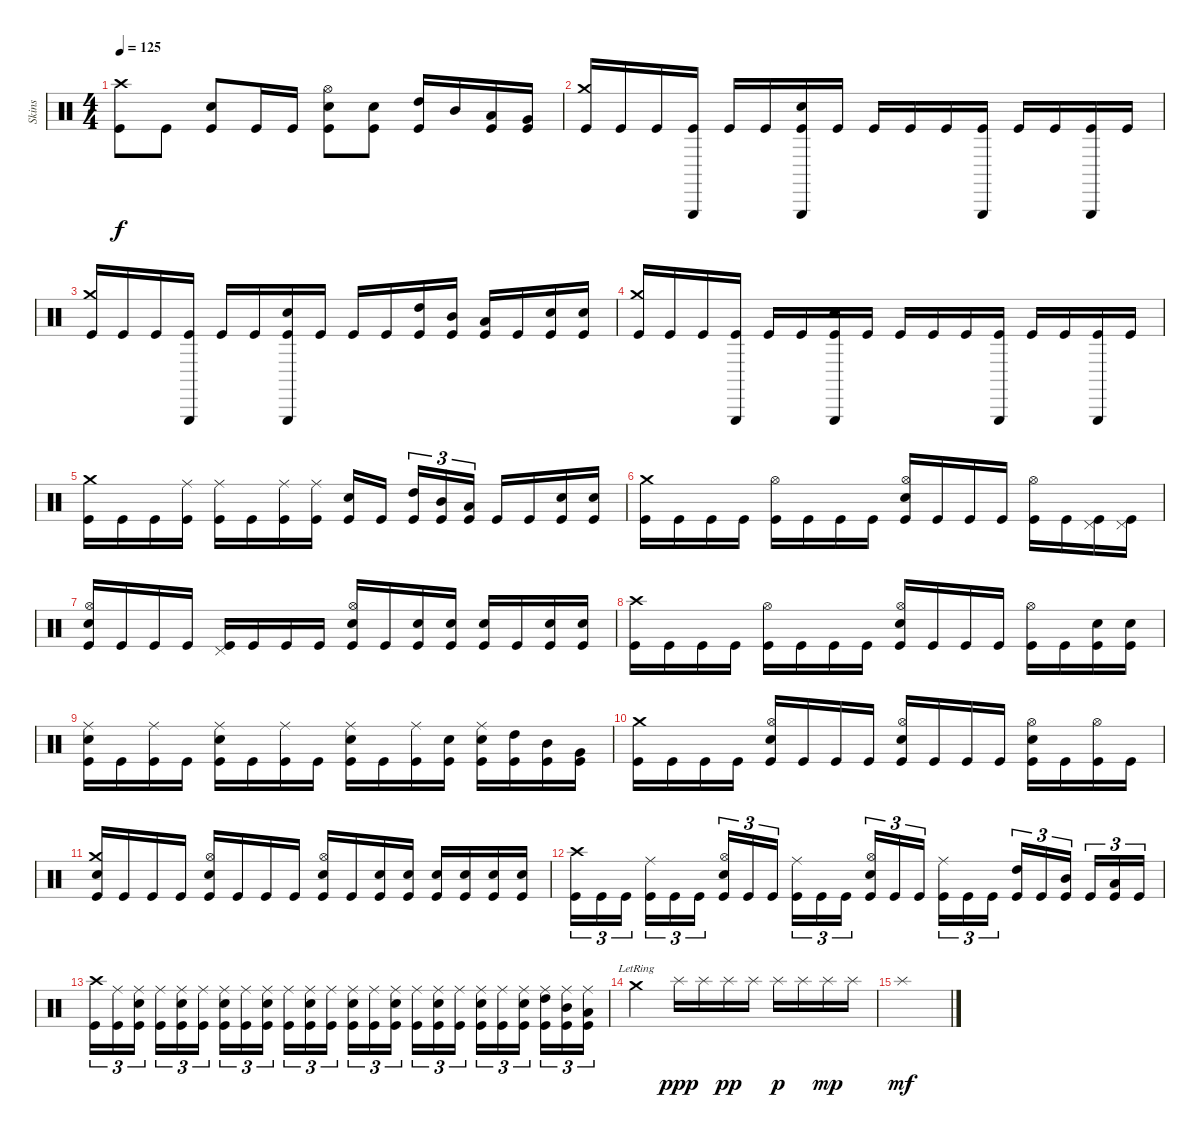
\track ("Skins" "Skins") {instrument percussion}
\staff {score}
\articulation defaults
\ts (4 4)
\tempo 125
\clef neutral
\ks c
("Crash high (hit)" "Kick (hit)").8{dy f} "Kick (hit)".8 ("Snare (hit) 2" "Kick (hit)").8 "Kick (hit)".16 "Kick (hit)".16 ("Hi-Hat (open)" "Snare (hit) 2" "Kick (hit)").8 ("Snare (hit) 2" "Kick (hit)").8 ("High Tom (hit)" "Kick (hit)").16 "Mid Tom (hit)".16 ("Low Tom (hit)" "Kick (hit)").16 ("Very Low Tom (hit)" "Kick (hit)").16 |
("Crash medium (hit)" "Kick (hit)").16 "Kick (hit)".16 "Kick (hit)".16 ("Triangle (hit)" "Kick (hit)").16 "Kick (hit)".16 "Kick (hit)".16 ("Triangle (hit)" "Electric Snare (hit)" "Kick (hit)").16 "Kick (hit)".16 "Kick (hit)".16 "Kick (hit)".16 "Kick (hit)".16 ("Triangle (hit)" "Kick (hit)").16 "Kick (hit)".16 "Kick (hit)".16 ("Triangle (hit)" "Kick (hit)").16 "Kick (hit)".16 |
("Crash medium (hit)" "Kick (hit)").16 "Kick (hit)".16 "Kick (hit)".16 ("Triangle (hit)" "Kick (hit)").16 "Kick (hit)".16 "Kick (hit)".16 ("Triangle (hit)" "Electric Snare (hit)" "Kick (hit)").16 "Kick (hit)".16 "Kick (hit)".16 "Kick (hit)".16 ("High Tom (hit)" "Kick (hit)").16 ("Mid Tom (hit)" "Kick (hit)").16 ("Low Tom (hit)" "Kick (hit)").16 "Kick (hit)".16 ("Snare (hit) 2" "Kick (hit)").16 ("Snare (hit) 2" "Kick (hit)").16 |
("Crash medium (hit)" "Kick (hit)").16 "Kick (hit)".16 "Kick (hit)".16 ("Triangle (hit)" "Kick (hit)").16 "Kick (hit)".16 "Kick (hit)".16 ("Triangle (hit)" "Snare (hit) 2" "Kick (hit)").16 "Kick (hit)".16 "Kick (hit)".16 "Kick (hit)".16 "Kick (hit)".16 ("Triangle (hit)" "Kick (hit)").16 "Kick (hit)".16 "Kick (hit)".16 ("Triangle (hit)" "Kick (hit)").16 "Kick (hit)".16 |
("Crash medium (hit)" "Kick (hit)").16 "Kick (hit)".16 "Kick (hit)".16 ("Ride (middle)" "Kick (hit)").16 ("Ride (middle)" "Kick (hit)").16 "Kick (hit)".16 ("Ride (middle)" "Kick (hit)").16 ("Ride (middle)" "Kick (hit)").16 ("Snare (hit) 2" "Kick (hit)").16 "Kick (hit)".16 ("High Tom (hit)" "Kick (hit)").16{tu (3 2)} ("Mid Tom (hit)" "Kick (hit)").16{tu (3 2)} ("Low Tom (hit)" "Kick (hit)").16{tu (3 2)} "Kick (hit)".16 "Kick (hit)".16 ("Snare (hit) 2" "Kick (hit)").16 ("Snare (hit) 2" "Kick (hit)").16 |
("Crash medium (hit)" "Kick (hit)").16 "Kick (hit)".16 "Kick (hit)".16 "Kick (hit)".16 ("Hi-Hat (open)" "Kick (hit)").16 "Kick (hit)".16 "Kick (hit)".16 "Kick (hit)".16 ("Hi-Hat (open)" "Electric Snare (hit)" "Kick (hit)").16 "Kick (hit)".16 "Kick (hit)".16 "Kick (hit)".16 ("Hi-Hat (open)" "Kick (hit)").16 "Kick (hit)".16 ("Pedal Hi-Hat (hit)" "Kick (hit)").16 ("Pedal Hi-Hat (hit)" "Kick (hit)").16 |
("Hi-Hat (open)" "Electric Snare (hit)" "Kick (hit)").16 "Kick (hit)".16 "Kick (hit)".16 "Kick (hit)".16 ("Pedal Hi-Hat (hit)" "Kick (hit)").16 "Kick (hit)".16 "Kick (hit)".16 "Kick (hit)".16 ("Hi-Hat (open)" "Electric Snare (hit)" "Kick (hit)").16 "Kick (hit)".16 ("Snare (hit) 2" "Kick (hit)").16 ("Snare (hit) 2" "Kick (hit)").16 ("Snare (hit) 2" "Kick (hit)").16 "Kick (hit)".16 ("Snare (hit) 2" "Kick (hit)").16 ("Snare (hit) 2" "Kick (hit)").16 |
("Crash high (hit)" "Kick (hit)").16 "Kick (hit)".16 "Kick (hit)".16 "Kick (hit)".16 ("Hi-Hat (open)" "Kick (hit)").16 "Kick (hit)".16 "Kick (hit)".16 "Kick (hit)".16 ("Hi-Hat (open)" "Electric Snare (hit)" "Kick (hit)").16 "Kick (hit)".16 "Kick (hit)".16 "Kick (hit)".16 ("Hi-Hat (open)" "Kick (hit)").16 "Kick (hit)".16 ("Electric Snare (hit)" "Kick (hit)").16 ("Electric Snare (hit)" "Kick (hit)").16 |
("Ride (middle)" "Electric Snare (hit)" "Kick (hit)").16 "Kick (hit)".16 ("Ride (middle)" "Kick (hit)").16 "Kick (hit)".16 ("Ride (middle)" "Electric Snare (hit)" "Kick (hit)").16 "Kick (hit)".16 ("Ride (middle)" "Kick (hit)").16 "Kick (hit)".16 ("Ride (middle)" "Electric Snare (hit)" "Kick (hit)").16 "Kick (hit)".16 ("Ride (middle)" "Kick (hit)").16 ("Electric Snare (hit)" "Kick (hit)").16 ("Ride (middle)" "Electric Snare (hit)" "Kick (hit)").16 ("High Tom (hit)" "Kick (hit)").16 ("Mid Tom (hit)" "Kick (hit)").16 ("Very Low Tom (hit)" "Kick (hit)").16 |
("Crash medium (hit)" "Kick (hit)").16 "Kick (hit)".16 "Kick (hit)".16 "Kick (hit)".16 ("Hi-Hat (open)" "Electric Snare (hit)" "Kick (hit)").16 "Kick (hit)".16 "Kick (hit)".16 "Kick (hit)".16 ("Hi-Hat (open)" "Electric Snare (hit)" "Kick (hit)").16 "Kick (hit)".16 "Kick (hit)".16 "Kick (hit)".16 ("Hi-Hat (open)" "Electric Snare (hit)" "Kick (hit)").16 "Kick (hit)".16 ("Hi-Hat (open)" "Kick (hit)").16 "Kick (hit)".16 |
("Crash medium (hit)" "Electric Snare (hit)" "Kick (hit)").16 "Kick (hit)".16 "Kick (hit)".16 "Kick (hit)".16 ("Hi-Hat (open)" "Electric Snare (hit)" "Kick (hit)").16 "Kick (hit)".16 "Kick (hit)".16 "Kick (hit)".16 ("Hi-Hat (open)" "Electric Snare (hit)" "Kick (hit)").16 "Kick (hit)".16 ("Snare (hit) 2" "Kick (hit)").16 ("Snare (hit) 2" "Kick (hit)").16 ("Snare (hit) 2" "Kick (hit)").16 ("Electric Snare (hit)" "Kick (hit)").16 ("Snare (hit) 2" "Kick (hit)").16 ("Snare (hit) 2" "Kick (hit)").16 |
("Crash high (hit)" "Kick (hit)").16{tu (3 2)} "Kick (hit)".16{tu (3 2)} "Kick (hit)".16{tu (3 2)} ("Ride (middle)" "Kick (hit)").16{tu (3 2)} "Kick (hit)".16{tu (3 2)} "Kick (hit)".16{tu (3 2)} ("Hi-Hat (open)" "Electric Snare (hit)" "Kick (hit)").16{tu (3 2)} "Kick (hit)".16{tu (3 2)} "Kick (hit)".16{tu (3 2)} ("Ride (middle)" "Kick (hit)").16{tu (3 2)} "Kick (hit)".16{tu (3 2)} "Kick (hit)".16{tu (3 2)} ("Hi-Hat (open)" "Electric Snare (hit)" "Kick (hit)").16{tu (3 2)} "Kick (hit)".16{tu (3 2)} "Kick (hit)".16{tu (3 2)} ("Ride (middle)" "Kick (hit)").16{tu (3 2)} "Kick (hit)".16{tu (3 2)} "Kick (hit)".16{tu (3 2)} ("High Tom (hit)" "Kick (hit)").16{tu (3 2)} "Kick (hit)".16{tu (3 2)} ("Mid Tom (hit)" "Kick (hit)").16{tu (3 2)} "Kick (hit)".16{tu (3 2)} ("Low Tom (hit)" "Kick (hit)").16{tu (3 2)} "Kick (hit)".16{tu (3 2)} |
("Crash high (hit)" "Kick (hit)").16{tu (3 2)} ("Ride (middle)" "Kick (hit)").16{tu (3 2)} ("Ride (middle)" "Electric Snare (hit)" "Kick (hit)").16{tu (3 2)} ("Ride (middle)" "Kick (hit)").16{tu (3 2)} ("Ride (middle)" "Electric Snare (hit)" "Kick (hit)").16{tu (3 2)} ("Ride (middle)" "Kick (hit)").16{tu (3 2)} ("Ride (middle)" "Electric Snare (hit)" "Kick (hit)").16{tu (3 2)} ("Ride (middle)" "Kick (hit)").16{tu (3 2)} ("Ride (middle)" "Electric Snare (hit)" "Kick (hit)").16{tu (3 2)} ("Ride (middle)" "Kick (hit)").16{tu (3 2)} ("Ride (middle)" "Electric Snare (hit)" "Kick (hit)").16{tu (3 2)} ("Ride (middle)" "Kick (hit)").16{tu (3 2)} ("Ride (middle)" "Electric Snare (hit)" "Kick (hit)").16{tu (3 2)} ("Ride (middle)" "Kick (hit)").16{tu (3 2)} ("Ride (middle)" "Electric Snare (hit)" "Kick (hit)").16{tu (3 2)} ("Ride (middle)" "Kick (hit)").16{tu (3 2)} ("Ride (middle)" "Electric Snare (hit)" "Kick (hit)").16{tu (3 2)} ("Ride (middle)" "Kick (hit)").16{tu (3 2)} ("Ride (middle)" "Electric Snare (hit)" "Kick (hit)").16{tu (3 2)} ("Ride (middle)" "Kick (hit)").16{tu (3 2)} ("Ride (middle)" "Electric Snare (hit)" "Kick (hit)").16{tu (3 2)} ("Ride (middle)" "High Tom (hit)" "Kick (hit)").16{tu (3 2)} ("Ride (middle)" "Mid Tom (hit)" "Kick (hit)").16{tu (3 2)} ("Ride (middle)" "Low Tom (hit)" "Kick (hit)").16{tu (3 2)} |
"Crash medium (hit)"{lr}.2 "Splash (hit)".16{dy ppp} "Splash (hit)".16 "Splash (hit)".16{dy pp} "Splash (hit)".16 "Splash (hit)".16{dy p} "Splash (hit)".16 "Splash (hit)".16{dy mp} "Splash (hit)".16 |
"Splash (hit)".1{dy mf}
